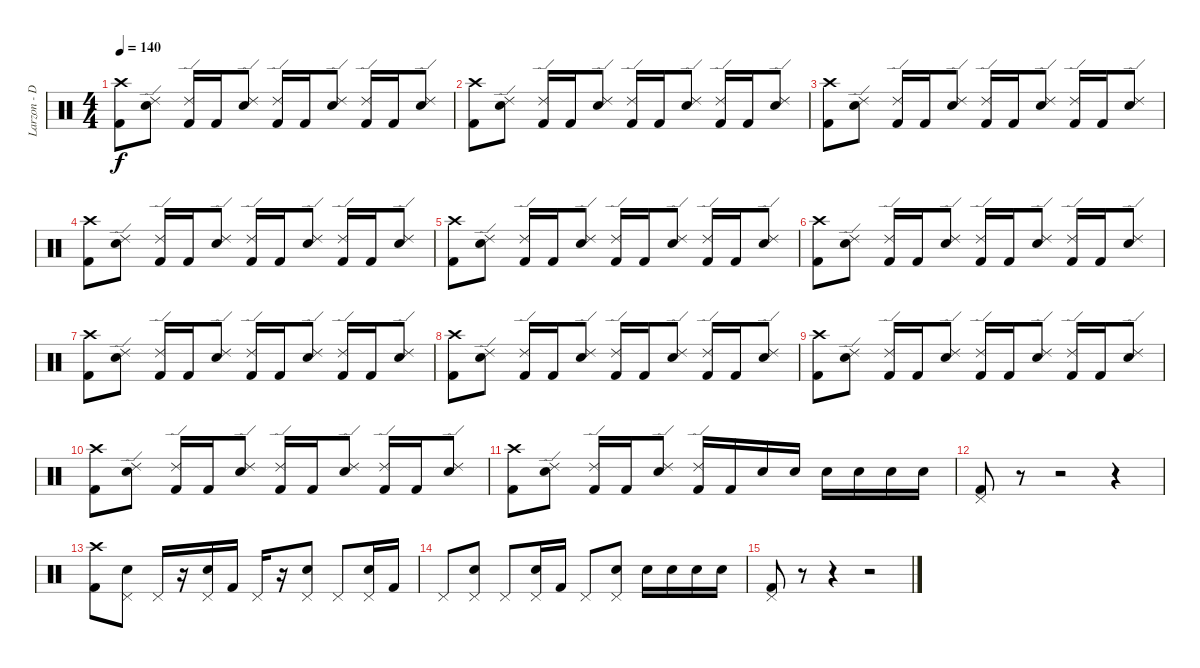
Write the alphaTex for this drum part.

\track ("Larzon - Drums" "Larzon - D") {instrument percussion}
\staff {score}
\articulation defaults
\ts (4 4)
\tempo 140
\clef neutral
\ks c
("Crash high (hit)" "Kick (hit) 2").8{dy f} ("Ride (edge) 2" "Electric Snare (hit)").8 ("Ride (edge) 2" "Kick (hit) 2").16 "Kick (hit) 2".16 ("Ride (edge) 2" "Electric Snare (hit)").8 ("Ride (edge) 2" "Kick (hit) 2").16 "Kick (hit) 2".16 ("Ride (edge) 2" "Electric Snare (hit)").8 ("Ride (edge) 2" "Kick (hit) 2").16 "Kick (hit) 2".16 ("Ride (edge) 2" "Electric Snare (hit)").8 |
("Crash high (hit)" "Kick (hit) 2").8 ("Ride (edge) 2" "Electric Snare (hit)").8 ("Ride (edge) 2" "Kick (hit) 2").16 "Kick (hit) 2".16 ("Ride (edge) 2" "Electric Snare (hit)").8 ("Ride (edge) 2" "Kick (hit) 2").16 "Kick (hit) 2".16 ("Ride (edge) 2" "Electric Snare (hit)").8 ("Ride (edge) 2" "Kick (hit) 2").16 "Kick (hit) 2".16 ("Ride (edge) 2" "Electric Snare (hit)").8 |
("Crash high (hit)" "Kick (hit) 2").8 ("Ride (edge) 2" "Electric Snare (hit)").8 ("Ride (edge) 2" "Kick (hit) 2").16 "Kick (hit) 2".16 ("Ride (edge) 2" "Electric Snare (hit)").8 ("Ride (edge) 2" "Kick (hit) 2").16 "Kick (hit) 2".16 ("Ride (edge) 2" "Electric Snare (hit)").8 ("Ride (edge) 2" "Kick (hit) 2").16 "Kick (hit) 2".16 ("Ride (edge) 2" "Electric Snare (hit)").8 |
("Crash high (hit)" "Kick (hit) 2").8 ("Ride (edge) 2" "Electric Snare (hit)").8 ("Ride (edge) 2" "Kick (hit) 2").16 "Kick (hit) 2".16 ("Ride (edge) 2" "Electric Snare (hit)").8 ("Ride (edge) 2" "Kick (hit) 2").16 "Kick (hit) 2".16 ("Ride (edge) 2" "Electric Snare (hit)").8 ("Ride (edge) 2" "Kick (hit) 2").16 "Kick (hit) 2".16 ("Ride (edge) 2" "Electric Snare (hit)").8 |
("Crash high (hit)" "Kick (hit) 2").8 ("Ride (edge) 2" "Electric Snare (hit)").8 ("Ride (edge) 2" "Kick (hit) 2").16 "Kick (hit) 2".16 ("Ride (edge) 2" "Electric Snare (hit)").8 ("Ride (edge) 2" "Kick (hit) 2").16 "Kick (hit) 2".16 ("Ride (edge) 2" "Electric Snare (hit)").8 ("Ride (edge) 2" "Kick (hit) 2").16 "Kick (hit) 2".16 ("Ride (edge) 2" "Electric Snare (hit)").8 |
("Crash high (hit)" "Kick (hit) 2").8 ("Ride (edge) 2" "Electric Snare (hit)").8 ("Ride (edge) 2" "Kick (hit) 2").16 "Kick (hit) 2".16 ("Ride (edge) 2" "Electric Snare (hit)").8 ("Ride (edge) 2" "Kick (hit) 2").16 "Kick (hit) 2".16 ("Ride (edge) 2" "Electric Snare (hit)").8 ("Ride (edge) 2" "Kick (hit) 2").16 "Kick (hit) 2".16 ("Ride (edge) 2" "Electric Snare (hit)").8 |
("Crash high (hit)" "Kick (hit) 2").8 ("Ride (edge) 2" "Electric Snare (hit)").8 ("Ride (edge) 2" "Kick (hit) 2").16 "Kick (hit) 2".16 ("Ride (edge) 2" "Electric Snare (hit)").8 ("Ride (edge) 2" "Kick (hit) 2").16 "Kick (hit) 2".16 ("Ride (edge) 2" "Electric Snare (hit)").8 ("Ride (edge) 2" "Kick (hit) 2").16 "Kick (hit) 2".16 ("Ride (edge) 2" "Electric Snare (hit)").8 |
("Crash high (hit)" "Kick (hit) 2").8 ("Ride (edge) 2" "Electric Snare (hit)").8 ("Ride (edge) 2" "Kick (hit) 2").16 "Kick (hit) 2".16 ("Ride (edge) 2" "Electric Snare (hit)").8 ("Ride (edge) 2" "Kick (hit) 2").16 "Kick (hit) 2".16 ("Ride (edge) 2" "Electric Snare (hit)").8 ("Ride (edge) 2" "Kick (hit) 2").16 "Kick (hit) 2".16 ("Ride (edge) 2" "Electric Snare (hit)").8 |
("Crash high (hit)" "Kick (hit) 2").8 ("Ride (edge) 2" "Electric Snare (hit)").8 ("Ride (edge) 2" "Kick (hit) 2").16 "Kick (hit) 2".16 ("Ride (edge) 2" "Electric Snare (hit)").8 ("Ride (edge) 2" "Kick (hit) 2").16 "Kick (hit) 2".16 ("Ride (edge) 2" "Electric Snare (hit)").8 ("Ride (edge) 2" "Kick (hit) 2").16 "Kick (hit) 2".16 ("Ride (edge) 2" "Electric Snare (hit)").8 |
("Crash high (hit)" "Kick (hit) 2").8 ("Ride (edge) 2" "Electric Snare (hit)").8 ("Ride (edge) 2" "Kick (hit) 2").16 "Kick (hit) 2".16 ("Ride (edge) 2" "Electric Snare (hit)").8 ("Ride (edge) 2" "Kick (hit) 2").16 "Kick (hit) 2".16 ("Ride (edge) 2" "Electric Snare (hit)").8 ("Ride (edge) 2" "Kick (hit) 2").16 "Kick (hit) 2".16 ("Ride (edge) 2" "Electric Snare (hit)").8 |
("Crash high (hit)" "Kick (hit) 2").8 ("Ride (edge) 2" "Electric Snare (hit)").8 ("Ride (edge) 2" "Kick (hit) 2").16 "Kick (hit) 2".16 ("Ride (edge) 2" "Electric Snare (hit)").8 ("Ride (edge) 2" "Kick (hit) 2").16 "Kick (hit) 2".16 "Electric Snare (hit)".16 "Electric Snare (hit)".16 "Electric Snare (hit)".16 "Electric Snare (hit)".16 "Electric Snare (hit)".16 "Electric Snare (hit)".16 |
("Pedal Hi-Hat (hit)" "Kick (hit) 2").8 r.8 r.2 r.4 |
("Crash high (hit)" "Kick (hit) 2").8 ("Pedal Hi-Hat (hit)" "Electric Snare (hit)").8 "Pedal Hi-Hat (hit)".16 r.16 ("Pedal Hi-Hat (hit)" "Electric Snare (hit)").16 "Kick (hit) 2".16 "Pedal Hi-Hat (hit)".16 r.16 ("Pedal Hi-Hat (hit)" "Electric Snare (hit)").8 "Pedal Hi-Hat (hit)".8 ("Pedal Hi-Hat (hit)" "Electric Snare (hit)").16 "Kick (hit) 2".16 |
"Pedal Hi-Hat (hit)".8 ("Pedal Hi-Hat (hit)" "Electric Snare (hit)").8 "Pedal Hi-Hat (hit)".8 ("Pedal Hi-Hat (hit)" "Electric Snare (hit)").16 "Kick (hit) 2".16 "Pedal Hi-Hat (hit)".8 ("Pedal Hi-Hat (hit)" "Electric Snare (hit)").8 "Electric Snare (hit)".16 "Electric Snare (hit)".16 "Electric Snare (hit)".16 "Electric Snare (hit)".16 |
("Pedal Hi-Hat (hit)" "Kick (hit) 2").8 r.8 r.4 r.2
